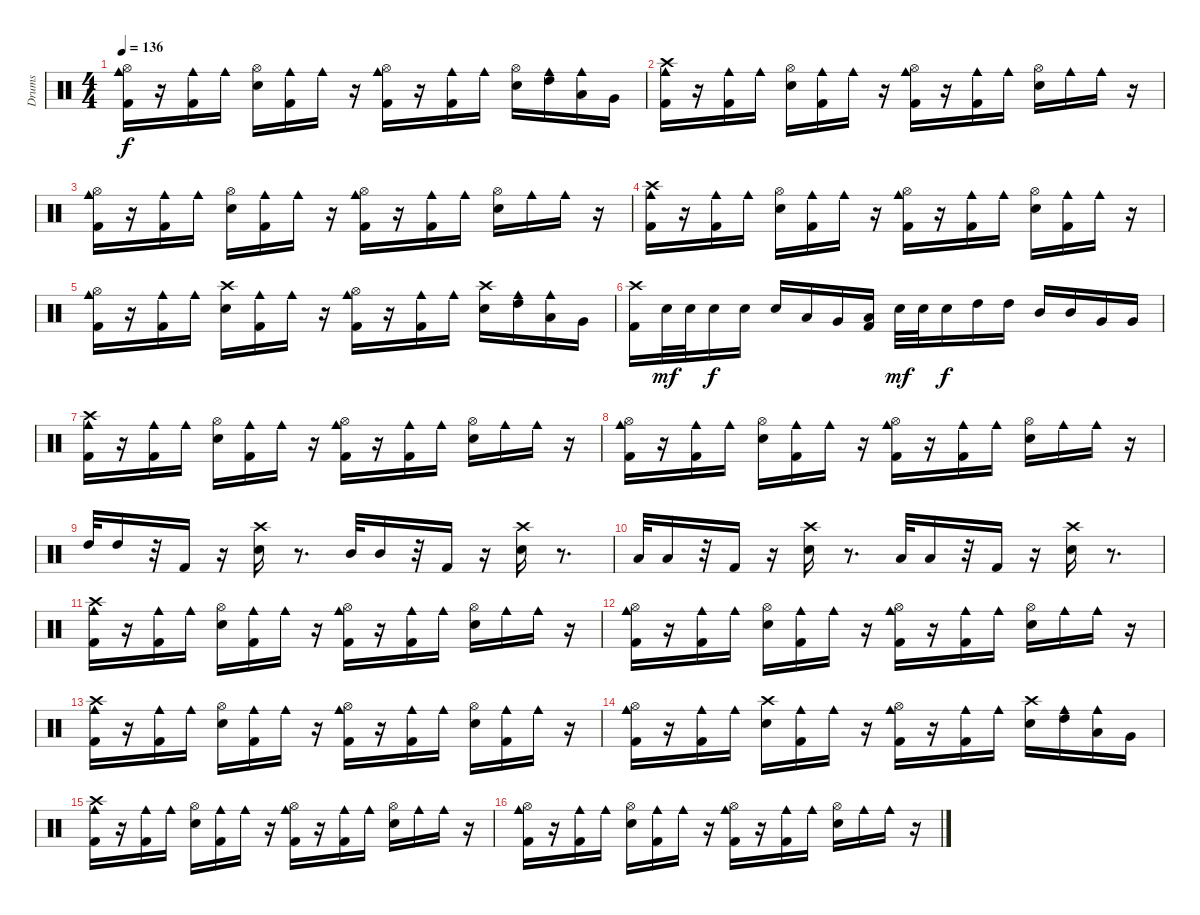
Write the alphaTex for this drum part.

\track ("Drums" "Drums") {instrument percussion}
\staff {score}
\articulation defaults
\ts (4 4)
\tempo 136
\clef neutral
\ks c
("Kick (hit) 2" "Cowbell medium (hit)" "Hi-Hat (open)").16{dy f} r.16 ("Kick (hit) 2" "Cowbell medium (hit)").16 "Cowbell medium (hit)".16 ("Metronome (bell)" "Hi-Hat (open)").16 ("Cowbell medium (hit)" "Kick (hit) 2").16 "Cowbell medium (hit)".16 r.16 ("Kick (hit) 2" "Cowbell medium (hit)" "Hi-Hat (open)").16 r.16 ("Kick (hit) 2" "Cowbell medium (hit)").16 "Cowbell medium (hit)".16 ("Metronome (bell)" "Hi-Hat (open)").16 ("Cowbell medium (hit)" "High Tom (hit)").16 ("Cowbell medium (hit)" "Low Tom (hit)").16 "Very Low Tom (hit)".16 |
("Cowbell medium (hit)" "Kick (hit) 2" "Crash high (hit)").16 r.16 ("Cowbell medium (hit)" "Kick (hit) 2").16 "Cowbell medium (hit)".16 ("Metronome (bell)" "Hi-Hat (open)").16 ("Cowbell medium (hit)" "Kick (hit) 2").16 "Cowbell medium (hit)".16 r.16 ("Kick (hit) 2" "Cowbell medium (hit)" "Hi-Hat (open)").16 r.16 ("Cowbell medium (hit)" "Kick (hit) 2").16 "Cowbell medium (hit)".16 ("Metronome (bell)" "Hi-Hat (open)").16 "Cowbell medium (hit)".16 "Cowbell medium (hit)".16 r.16 |
("Kick (hit) 2" "Cowbell medium (hit)" "Hi-Hat (open)").16 r.16 ("Kick (hit) 2" "Cowbell medium (hit)").16 "Cowbell medium (hit)".16 ("Metronome (bell)" "Hi-Hat (open)").16 ("Cowbell medium (hit)" "Kick (hit) 2").16 "Cowbell medium (hit)".16 r.16 ("Kick (hit) 2" "Cowbell medium (hit)" "Hi-Hat (open)").16 r.16 ("Kick (hit) 2" "Cowbell medium (hit)").16 "Cowbell medium (hit)".16 ("Metronome (bell)" "Hi-Hat (open)").16 "Cowbell medium (hit)".16 "Cowbell medium (hit)".16 r.16 |
("Cowbell medium (hit)" "Kick (hit) 2" "Crash high (hit)").16 r.16 ("Cowbell medium (hit)" "Kick (hit) 2").16 "Cowbell medium (hit)".16 ("Metronome (bell)" "Hi-Hat (open)").16 ("Cowbell medium (hit)" "Kick (hit) 2").16 "Cowbell medium (hit)".16 r.16 ("Kick (hit) 2" "Cowbell medium (hit)" "Hi-Hat (open)").16 r.16 ("Cowbell medium (hit)" "Kick (hit) 2").16 "Cowbell medium (hit)".16 ("Metronome (bell)" "Hi-Hat (open)").16 ("Cowbell medium (hit)" "Kick (hit) 2").16 "Cowbell medium (hit)".16 r.16 |
("Kick (hit) 2" "Cowbell medium (hit)" "Hi-Hat (open)").16 r.16 ("Kick (hit) 2" "Cowbell medium (hit)").16 "Cowbell medium (hit)".16 ("Metronome (bell)" "Crash high (hit)").16 ("Cowbell medium (hit)" "Kick (hit) 2").16 "Cowbell medium (hit)".16 r.16 ("Kick (hit) 2" "Cowbell medium (hit)" "Hi-Hat (open)").16 r.16 ("Kick (hit) 2" "Cowbell medium (hit)").16 "Cowbell medium (hit)".16 ("Metronome (bell)" "Crash high (hit)").16 ("Cowbell medium (hit)" "High Tom (hit)").16 ("Cowbell medium (hit)" "Low Tom (hit)").16 "Very Low Tom (hit)".16 |
("Crash high (hit)" "Kick (hit) 2").16 "Metronome (bell)".32{dy mf} "Metronome (bell)".32 "Metronome (bell)".16{dy f} "Metronome (bell)".16 "Metronome (bell)".16 "Low Tom (hit)".16 "Very Low Tom (hit)".16 ("Kick (hit) 2" "Low Floor Tom (hit)").16 "Metronome (bell)".32{dy mf} "Metronome (bell)".32 "Metronome (bell)".16{dy f} "High Tom (hit)".16 "High Tom (hit)".16 "Mid Tom (hit)".16 "Mid Tom (hit)".16 "Very Low Tom (hit)".16 "Very Low Tom (hit)".16 |
("Cowbell medium (hit)" "Kick (hit) 2" "Crash high (hit)").16 r.16 ("Cowbell medium (hit)" "Kick (hit) 2").16 "Cowbell medium (hit)".16 ("Metronome (bell)" "Hi-Hat (open)").16 ("Cowbell medium (hit)" "Kick (hit) 2").16 "Cowbell medium (hit)".16 r.16 ("Kick (hit) 2" "Cowbell medium (hit)" "Hi-Hat (open)").16 r.16 ("Cowbell medium (hit)" "Kick (hit) 2").16 "Cowbell medium (hit)".16 ("Metronome (bell)" "Hi-Hat (open)").16 "Cowbell medium (hit)".16 "Cowbell medium (hit)".16 r.16 |
("Kick (hit) 2" "Cowbell medium (hit)" "Hi-Hat (open)").16 r.16 ("Kick (hit) 2" "Cowbell medium (hit)").16 "Cowbell medium (hit)".16 ("Metronome (bell)" "Hi-Hat (open)").16 ("Cowbell medium (hit)" "Kick (hit) 2").16 "Cowbell medium (hit)".16 r.16 ("Kick (hit) 2" "Cowbell medium (hit)" "Hi-Hat (open)").16 r.16 ("Kick (hit) 2" "Cowbell medium (hit)").16 "Cowbell medium (hit)".16 ("Metronome (bell)" "Hi-Hat (open)").16 "Cowbell medium (hit)".16 "Cowbell medium (hit)".16 r.16 |
"High Tom (hit)".32 "High Tom (hit)".16 r.32 "Kick (hit) 2".16 r.16 ("Metronome (bell)" "Crash high (hit)").16 r.8{d} "Mid Tom (hit)".32 "Mid Tom (hit)".16 r.32 "Kick (hit) 2".16 r.16 ("Metronome (bell)" "Crash high (hit)").16 r.8{d} |
"Low Tom (hit)".32 "Low Tom (hit)".16 r.32 "Kick (hit) 2".16 r.16 ("Metronome (bell)" "Crash high (hit)").16 r.8{d} "Low Floor Tom (hit)".32 "Low Floor Tom (hit)".16 r.32 "Kick (hit) 2".16 r.16 ("Metronome (bell)" "Crash high (hit)").16 r.8{d} |
("Cowbell medium (hit)" "Kick (hit) 2" "Crash high (hit)").16 r.16 ("Cowbell medium (hit)" "Kick (hit) 2").16 "Cowbell medium (hit)".16 ("Metronome (bell)" "Hi-Hat (open)").16 ("Cowbell medium (hit)" "Kick (hit) 2").16 "Cowbell medium (hit)".16 r.16 ("Kick (hit) 2" "Cowbell medium (hit)" "Hi-Hat (open)").16 r.16 ("Cowbell medium (hit)" "Kick (hit) 2").16 "Cowbell medium (hit)".16 ("Metronome (bell)" "Hi-Hat (open)").16 "Cowbell medium (hit)".16 "Cowbell medium (hit)".16 r.16 |
("Kick (hit) 2" "Cowbell medium (hit)" "Hi-Hat (open)").16 r.16 ("Kick (hit) 2" "Cowbell medium (hit)").16 "Cowbell medium (hit)".16 ("Metronome (bell)" "Hi-Hat (open)").16 ("Cowbell medium (hit)" "Kick (hit) 2").16 "Cowbell medium (hit)".16 r.16 ("Kick (hit) 2" "Cowbell medium (hit)" "Hi-Hat (open)").16 r.16 ("Kick (hit) 2" "Cowbell medium (hit)").16 "Cowbell medium (hit)".16 ("Metronome (bell)" "Hi-Hat (open)").16 "Cowbell medium (hit)".16 "Cowbell medium (hit)".16 r.16 |
("Cowbell medium (hit)" "Kick (hit) 2" "Crash high (hit)").16 r.16 ("Cowbell medium (hit)" "Kick (hit) 2").16 "Cowbell medium (hit)".16 ("Metronome (bell)" "Hi-Hat (open)").16 ("Cowbell medium (hit)" "Kick (hit) 2").16 "Cowbell medium (hit)".16 r.16 ("Kick (hit) 2" "Cowbell medium (hit)" "Hi-Hat (open)").16 r.16 ("Cowbell medium (hit)" "Kick (hit) 2").16 "Cowbell medium (hit)".16 ("Metronome (bell)" "Hi-Hat (open)").16 ("Cowbell medium (hit)" "Kick (hit) 2").16 "Cowbell medium (hit)".16 r.16 |
("Kick (hit) 2" "Cowbell medium (hit)" "Hi-Hat (open)").16 r.16 ("Kick (hit) 2" "Cowbell medium (hit)").16 "Cowbell medium (hit)".16 ("Metronome (bell)" "Crash high (hit)").16 ("Cowbell medium (hit)" "Kick (hit) 2").16 "Cowbell medium (hit)".16 r.16 ("Kick (hit) 2" "Cowbell medium (hit)" "Hi-Hat (open)").16 r.16 ("Kick (hit) 2" "Cowbell medium (hit)").16 "Cowbell medium (hit)".16 ("Metronome (bell)" "Crash high (hit)").16 ("Cowbell medium (hit)" "High Tom (hit)").16 ("Cowbell medium (hit)" "Low Tom (hit)").16 "Very Low Tom (hit)".16 |
("Cowbell medium (hit)" "Kick (hit) 2" "Crash high (hit)").16 r.16 ("Cowbell medium (hit)" "Kick (hit) 2").16 "Cowbell medium (hit)".16 ("Metronome (bell)" "Hi-Hat (open)").16 ("Cowbell medium (hit)" "Kick (hit) 2").16 "Cowbell medium (hit)".16 r.16 ("Kick (hit) 2" "Cowbell medium (hit)" "Hi-Hat (open)").16 r.16 ("Cowbell medium (hit)" "Kick (hit) 2").16 "Cowbell medium (hit)".16 ("Metronome (bell)" "Hi-Hat (open)").16 "Cowbell medium (hit)".16 "Cowbell medium (hit)".16 r.16 |
("Kick (hit) 2" "Cowbell medium (hit)" "Hi-Hat (open)").16 r.16 ("Kick (hit) 2" "Cowbell medium (hit)").16 "Cowbell medium (hit)".16 ("Metronome (bell)" "Hi-Hat (open)").16 ("Cowbell medium (hit)" "Kick (hit) 2").16 "Cowbell medium (hit)".16 r.16 ("Kick (hit) 2" "Cowbell medium (hit)" "Hi-Hat (open)").16 r.16 ("Kick (hit) 2" "Cowbell medium (hit)").16 "Cowbell medium (hit)".16 ("Metronome (bell)" "Hi-Hat (open)").16 "Cowbell medium (hit)".16 "Cowbell medium (hit)".16 r.16
